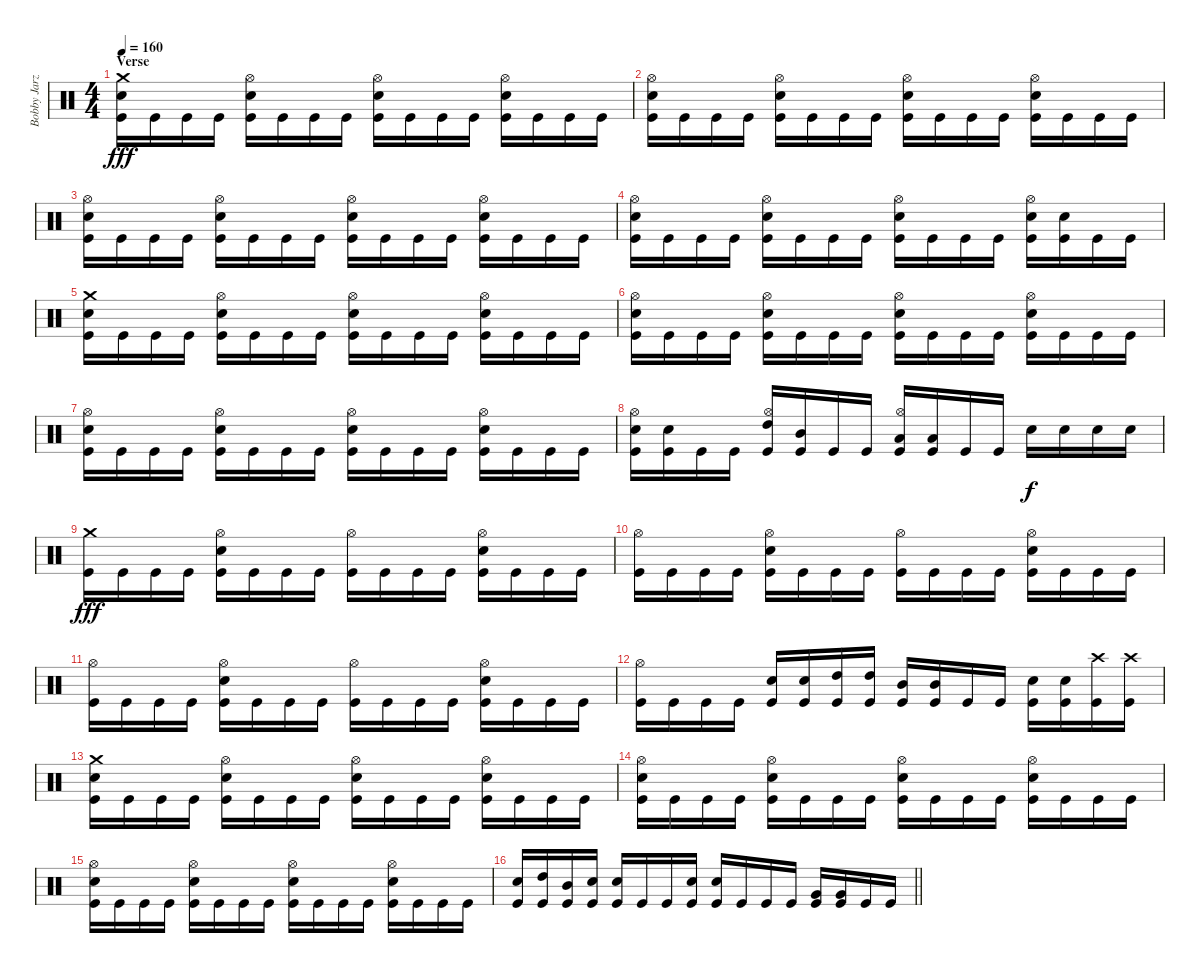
\track ("Bobby Jarzombek" "Bobby Jarz") {instrument percussion}
\staff {score}
\articulation defaults
\ts (4 4)
\section ("" "Verse")
\tempo 160
\clef neutral
\ks c
("Crash medium (hit)" "Electric Snare (hit)" "Kick (hit)").16{dy fff} "Kick (hit)".16 "Kick (hit)".16 "Kick (hit)".16 ("Hi-Hat (open)" "Electric Snare (hit)" "Kick (hit)").16 "Kick (hit)".16 "Kick (hit)".16 "Kick (hit)".16 ("Hi-Hat (open)" "Electric Snare (hit)" "Kick (hit)").16 "Kick (hit)".16 "Kick (hit)".16 "Kick (hit)".16 ("Hi-Hat (open)" "Electric Snare (hit)" "Kick (hit)").16 "Kick (hit)".16 "Kick (hit)".16 "Kick (hit)".16 |
("Hi-Hat (open)" "Electric Snare (hit)" "Kick (hit)").16 "Kick (hit)".16 "Kick (hit)".16 "Kick (hit)".16 ("Hi-Hat (open)" "Electric Snare (hit)" "Kick (hit)").16 "Kick (hit)".16 "Kick (hit)".16 "Kick (hit)".16 ("Hi-Hat (open)" "Electric Snare (hit)" "Kick (hit)").16 "Kick (hit)".16 "Kick (hit)".16 "Kick (hit)".16 ("Hi-Hat (open)" "Electric Snare (hit)" "Kick (hit)").16 "Kick (hit)".16 "Kick (hit)".16 "Kick (hit)".16 |
("Hi-Hat (open)" "Electric Snare (hit)" "Kick (hit)").16 "Kick (hit)".16 "Kick (hit)".16 "Kick (hit)".16 ("Hi-Hat (open)" "Electric Snare (hit)" "Kick (hit)").16 "Kick (hit)".16 "Kick (hit)".16 "Kick (hit)".16 ("Hi-Hat (open)" "Electric Snare (hit)" "Kick (hit)").16 "Kick (hit)".16 "Kick (hit)".16 "Kick (hit)".16 ("Hi-Hat (open)" "Electric Snare (hit)" "Kick (hit)").16 "Kick (hit)".16 "Kick (hit)".16 "Kick (hit)".16 |
("Hi-Hat (open)" "Electric Snare (hit)" "Kick (hit)").16 "Kick (hit)".16 "Kick (hit)".16 "Kick (hit)".16 ("Hi-Hat (open)" "Electric Snare (hit)" "Kick (hit)").16 "Kick (hit)".16 "Kick (hit)".16 "Kick (hit)".16 ("Hi-Hat (open)" "Electric Snare (hit)" "Kick (hit)").16 "Kick (hit)".16 "Kick (hit)".16 "Kick (hit)".16 ("Hi-Hat (open)" "Electric Snare (hit)" "Kick (hit)").16 ("Electric Snare (hit)" "Kick (hit)").16 "Kick (hit)".16 "Kick (hit)".16 |
("Crash medium (hit)" "Electric Snare (hit)" "Kick (hit)").16 "Kick (hit)".16 "Kick (hit)".16 "Kick (hit)".16 ("Hi-Hat (open)" "Electric Snare (hit)" "Kick (hit)").16 "Kick (hit)".16 "Kick (hit)".16 "Kick (hit)".16 ("Hi-Hat (open)" "Electric Snare (hit)" "Kick (hit)").16 "Kick (hit)".16 "Kick (hit)".16 "Kick (hit)".16 ("Hi-Hat (open)" "Electric Snare (hit)" "Kick (hit)").16 "Kick (hit)".16 "Kick (hit)".16 "Kick (hit)".16 |
("Hi-Hat (open)" "Electric Snare (hit)" "Kick (hit)").16 "Kick (hit)".16 "Kick (hit)".16 "Kick (hit)".16 ("Hi-Hat (open)" "Electric Snare (hit)" "Kick (hit)").16 "Kick (hit)".16 "Kick (hit)".16 "Kick (hit)".16 ("Hi-Hat (open)" "Electric Snare (hit)" "Kick (hit)").16 "Kick (hit)".16 "Kick (hit)".16 "Kick (hit)".16 ("Hi-Hat (open)" "Electric Snare (hit)" "Kick (hit)").16 "Kick (hit)".16 "Kick (hit)".16 "Kick (hit)".16 |
("Hi-Hat (open)" "Electric Snare (hit)" "Kick (hit)").16 "Kick (hit)".16 "Kick (hit)".16 "Kick (hit)".16 ("Hi-Hat (open)" "Electric Snare (hit)" "Kick (hit)").16 "Kick (hit)".16 "Kick (hit)".16 "Kick (hit)".16 ("Hi-Hat (open)" "Electric Snare (hit)" "Kick (hit)").16 "Kick (hit)".16 "Kick (hit)".16 "Kick (hit)".16 ("Hi-Hat (open)" "Electric Snare (hit)" "Kick (hit)").16 "Kick (hit)".16 "Kick (hit)".16 "Kick (hit)".16 |
("Hi-Hat (open)" "Electric Snare (hit)" "Kick (hit)").16 ("Electric Snare (hit)" "Kick (hit)").16 "Kick (hit)".16 "Kick (hit)".16 ("Hi-Hat (open)" "High Tom (hit)" "Kick (hit)").16 ("Mid Tom (hit)" "Kick (hit)").16 "Kick (hit)".16 "Kick (hit)".16 ("Hi-Hat (open)" "Low Tom (hit)" "Kick (hit)").16 ("Low Tom (hit)" "Kick (hit)").16 "Kick (hit)".16 "Kick (hit)".16 "Electric Snare (hit)".16{dy f} "Electric Snare (hit)".16 "Electric Snare (hit)".16 "Electric Snare (hit)".16 |
("Crash medium (hit)" "Kick (hit)").16{dy fff} "Kick (hit)".16 "Kick (hit)".16 "Kick (hit)".16 ("Hi-Hat (open)" "Electric Snare (hit)" "Kick (hit)").16 "Kick (hit)".16 "Kick (hit)".16 "Kick (hit)".16 ("Hi-Hat (open)" "Kick (hit)").16 "Kick (hit)".16 "Kick (hit)".16 "Kick (hit)".16 ("Hi-Hat (open)" "Electric Snare (hit)" "Kick (hit)").16 "Kick (hit)".16 "Kick (hit)".16 "Kick (hit)".16 |
("Hi-Hat (open)" "Kick (hit)").16 "Kick (hit)".16 "Kick (hit)".16 "Kick (hit)".16 ("Hi-Hat (open)" "Electric Snare (hit)" "Kick (hit)").16 "Kick (hit)".16 "Kick (hit)".16 "Kick (hit)".16 ("Hi-Hat (open)" "Kick (hit)").16 "Kick (hit)".16 "Kick (hit)".16 "Kick (hit)".16 ("Hi-Hat (open)" "Electric Snare (hit)" "Kick (hit)").16 "Kick (hit)".16 "Kick (hit)".16 "Kick (hit)".16 |
("Hi-Hat (open)" "Kick (hit)").16 "Kick (hit)".16 "Kick (hit)".16 "Kick (hit)".16 ("Hi-Hat (open)" "Electric Snare (hit)" "Kick (hit)").16 "Kick (hit)".16 "Kick (hit)".16 "Kick (hit)".16 ("Hi-Hat (open)" "Kick (hit)").16 "Kick (hit)".16 "Kick (hit)".16 "Kick (hit)".16 ("Hi-Hat (open)" "Electric Snare (hit)" "Kick (hit)").16 "Kick (hit)".16 "Kick (hit)".16 "Kick (hit)".16 |
("Hi-Hat (open)" "Kick (hit)").16 "Kick (hit)".16 "Kick (hit)".16 "Kick (hit)".16 ("Electric Snare (hit)" "Kick (hit)").16 ("Electric Snare (hit)" "Kick (hit)").16 ("High Tom (hit)" "Kick (hit)").16 ("High Tom (hit)" "Kick (hit)").16 ("Mid Tom (hit)" "Kick (hit)").16 ("Mid Tom (hit)" "Kick (hit)").16 "Kick (hit)".16 "Kick (hit)".16 ("Electric Snare (hit)" "Kick (hit)").16 ("Electric Snare (hit)" "Kick (hit)").16 ("Crash high (hit)" "Kick (hit)").16 ("Crash high (hit)" "Kick (hit)").16 |
("Crash medium (hit)" "Electric Snare (hit)" "Kick (hit)").16 "Kick (hit)".16 "Kick (hit)".16 "Kick (hit)".16 ("Hi-Hat (open)" "Electric Snare (hit)" "Kick (hit)").16 "Kick (hit)".16 "Kick (hit)".16 "Kick (hit)".16 ("Hi-Hat (open)" "Electric Snare (hit)" "Kick (hit)").16 "Kick (hit)".16 "Kick (hit)".16 "Kick (hit)".16 ("Hi-Hat (open)" "Electric Snare (hit)" "Kick (hit)").16 "Kick (hit)".16 "Kick (hit)".16 "Kick (hit)".16 |
("Hi-Hat (open)" "Electric Snare (hit)" "Kick (hit)").16 "Kick (hit)".16 "Kick (hit)".16 "Kick (hit)".16 ("Hi-Hat (open)" "Electric Snare (hit)" "Kick (hit)").16 "Kick (hit)".16 "Kick (hit)".16 "Kick (hit)".16 ("Hi-Hat (open)" "Electric Snare (hit)" "Kick (hit)").16 "Kick (hit)".16 "Kick (hit)".16 "Kick (hit)".16 ("Hi-Hat (open)" "Electric Snare (hit)" "Kick (hit)").16 "Kick (hit)".16 "Kick (hit)".16 "Kick (hit)".16 |
("Hi-Hat (open)" "Electric Snare (hit)" "Kick (hit)").16 "Kick (hit)".16 "Kick (hit)".16 "Kick (hit)".16 ("Hi-Hat (open)" "Electric Snare (hit)" "Kick (hit)").16 "Kick (hit)".16 "Kick (hit)".16 "Kick (hit)".16 ("Hi-Hat (open)" "Electric Snare (hit)" "Kick (hit)").16 "Kick (hit)".16 "Kick (hit)".16 "Kick (hit)".16 ("Hi-Hat (open)" "Electric Snare (hit)" "Kick (hit)").16 "Kick (hit)".16 "Kick (hit)".16 "Kick (hit)".16 |
\barLineRight lightlight
("Electric Snare (hit)" "Kick (hit)").16 ("High Tom (hit)" "Kick (hit)").16 ("Mid Tom (hit)" "Kick (hit)").16 ("Electric Snare (hit)" "Kick (hit)").16 ("Electric Snare (hit)" "Kick (hit)").16 "Kick (hit)".16 "Kick (hit)".16 ("Electric Snare (hit)" "Kick (hit)").16 ("Electric Snare (hit)" "Kick (hit)").16 "Kick (hit)".16 "Kick (hit)".16 "Kick (hit)".16 ("Very Low Tom (hit)" "Kick (hit)").16 ("Very Low Tom (hit)" "Kick (hit)").16 "Kick (hit)".16 "Kick (hit)".16
